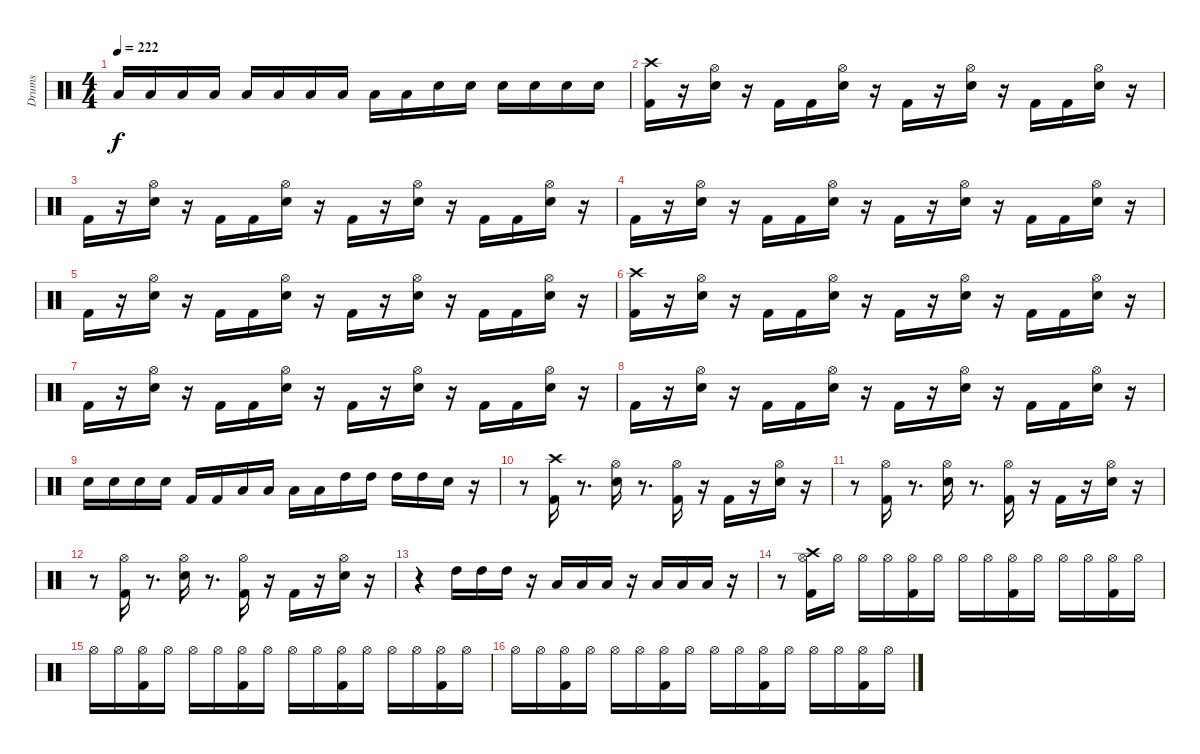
\track ("Drums" "Drums") {instrument percussion}
\staff {score}
\articulation defaults
\ts (4 4)
\tempo 222
\clef neutral
\ks c "Low Tom (hit)".16{dy f} "Low Tom (hit)".16 "Low Tom (hit)".16 "Low Floor Tom (hit)".16 "Low Floor Tom (hit)".16 "Low Floor Tom (hit)".16 "Low Tom (hit)".16 "Low Tom (hit)".16 "Low Tom (hit)".16 "Low Tom (hit)".16 "Snare (hit) 2".16 "Snare (hit) 2".16 "Snare (hit) 2".16 "Snare (hit) 2".16 "Snare (hit) 2".16 "Snare (hit) 2".16
|
("Kick (hit) 2" "Crash high (hit)").16 r.16 ("Snare (hit) 2" "Hi-Hat (open)").16 r.16 "Kick (hit) 2".16 "Kick (hit) 2".16 ("Snare (hit) 2" "Hi-Hat (open)").16 r.16 "Kick (hit) 2".16 r.16 ("Snare (hit) 2" "Hi-Hat (open)").16 r.16 "Kick (hit) 2".16 "Kick (hit) 2".16 ("Snare (hit) 2" "Hi-Hat (open)").16 r.16 |
"Kick (hit) 2".16 r.16 ("Snare (hit) 2" "Hi-Hat (open)").16 r.16 "Kick (hit) 2".16 "Kick (hit) 2".16 ("Snare (hit) 2" "Hi-Hat (open)").16 r.16 "Kick (hit) 2".16 r.16 ("Snare (hit) 2" "Hi-Hat (open)").16 r.16 "Kick (hit) 2".16 "Kick (hit) 2".16 ("Snare (hit) 2" "Hi-Hat (open)").16 r.16 |
"Kick (hit) 2".16 r.16 ("Snare (hit) 2" "Hi-Hat (open)").16 r.16 "Kick (hit) 2".16 "Kick (hit) 2".16 ("Snare (hit) 2" "Hi-Hat (open)").16 r.16 "Kick (hit) 2".16 r.16 ("Snare (hit) 2" "Hi-Hat (open)").16 r.16 "Kick (hit) 2".16 "Kick (hit) 2".16 ("Snare (hit) 2" "Hi-Hat (open)").16 r.16 |
"Kick (hit) 2".16 r.16 ("Snare (hit) 2" "Hi-Hat (open)").16 r.16 "Kick (hit) 2".16 "Kick (hit) 2".16 ("Snare (hit) 2" "Hi-Hat (open)").16 r.16 "Kick (hit) 2".16 r.16 ("Snare (hit) 2" "Hi-Hat (open)").16 r.16 "Kick (hit) 2".16 "Kick (hit) 2".16 ("Snare (hit) 2" "Hi-Hat (open)").16 r.16 |
("Kick (hit) 2" "Crash high (hit)").16 r.16 ("Snare (hit) 2" "Hi-Hat (open)").16 r.16 "Kick (hit) 2".16 "Kick (hit) 2".16 ("Snare (hit) 2" "Hi-Hat (open)").16 r.16 "Kick (hit) 2".16 r.16 ("Snare (hit) 2" "Hi-Hat (open)").16 r.16 "Kick (hit) 2".16 "Kick (hit) 2".16 ("Snare (hit) 2" "Hi-Hat (open)").16 r.16 |
"Kick (hit) 2".16 r.16 ("Snare (hit) 2" "Hi-Hat (open)").16 r.16 "Kick (hit) 2".16 "Kick (hit) 2".16 ("Snare (hit) 2" "Hi-Hat (open)").16 r.16 "Kick (hit) 2".16 r.16 ("Snare (hit) 2" "Hi-Hat (open)").16 r.16 "Kick (hit) 2".16 "Kick (hit) 2".16 ("Snare (hit) 2" "Hi-Hat (open)").16 r.16 |
"Kick (hit) 2".16 r.16 ("Snare (hit) 2" "Hi-Hat (open)").16 r.16 "Kick (hit) 2".16 "Kick (hit) 2".16 ("Snare (hit) 2" "Hi-Hat (open)").16 r.16 "Kick (hit) 2".16 r.16 ("Snare (hit) 2" "Hi-Hat (open)").16 r.16 "Kick (hit) 2".16 "Kick (hit) 2".16 ("Snare (hit) 2" "Hi-Hat (open)").16 r.16 |
"Snare (hit) 2".16 "Snare (hit) 2".16 "Snare (hit) 2".16 "Snare (hit) 2".16 "Kick (hit) 2".16 "Kick (hit) 2".16 "Low Floor Tom (hit)".16 "Low Floor Tom (hit)".16 "Low Tom (hit)".16 "Low Tom (hit)".16 "High Tom (hit)".16 "High Tom (hit)".16 "High Tom (hit)".16 "High Tom (hit)".16 "Snare (hit) 2".16 r.16 |
r.8 ("Kick (hit) 2" "Crash high (hit)").16 r.8{d} ("Snare (hit) 2" "Hi-Hat (open)").16 r.8{d} ("Kick (hit) 2" "Hi-Hat (open)").16 r.16 "Kick (hit) 2".16 r.16 ("Snare (hit) 2" "Hi-Hat (open)").16 r.16 |
r.8 ("Kick (hit) 2" "Hi-Hat (open)").16 r.8{d} ("Snare (hit) 2" "Hi-Hat (open)").16 r.8{d} ("Kick (hit) 2" "Hi-Hat (open)").16 r.16 "Kick (hit) 2".16 r.16 ("Snare (hit) 2" "Hi-Hat (open)").16 r.16 |
r.8 ("Kick (hit) 2" "Hi-Hat (open)").16 r.8{d} ("Snare (hit) 2" "Hi-Hat (open)").16 r.8{d} ("Kick (hit) 2" "Hi-Hat (open)").16 r.16 "Kick (hit) 2".16 r.16 ("Snare (hit) 2" "Hi-Hat (open)").16 r.16 |
r.4 "High Tom (hit)".16 "High Tom (hit)".16 "High Tom (hit)".16 r.16 "Low Tom (hit)".16 "Low Tom (hit)".16 "Low Tom (hit)".16 r.16 "Low Floor Tom (hit)".16 "Low Floor Tom (hit)".16 "Low Floor Tom (hit)".16 r.16 |
r.8 ("Kick (hit) 2" "Hi-Hat (open)" "Crash high (hit)").16 "Hi-Hat (open)".16 "Hi-Hat (open)".16 "Hi-Hat (open)".16 ("Kick (hit) 2" "Hi-Hat (open)").16 "Hi-Hat (open)".16 "Hi-Hat (open)".16 "Hi-Hat (open)".16 ("Kick (hit) 2" "Hi-Hat (open)").16 "Hi-Hat (open)".16 "Hi-Hat (open)".16 "Hi-Hat (open)".16 ("Kick (hit) 2" "Hi-Hat (open)").16 "Hi-Hat (open)".16 |
"Hi-Hat (open)".16 "Hi-Hat (open)".16 ("Kick (hit) 2" "Hi-Hat (open)").16 "Hi-Hat (open)".16 "Hi-Hat (open)".16 "Hi-Hat (open)".16 ("Kick (hit) 2" "Hi-Hat (open)").16 "Hi-Hat (open)".16 "Hi-Hat (open)".16 "Hi-Hat (open)".16 ("Kick (hit) 2" "Hi-Hat (open)").16 "Hi-Hat (open)".16 "Hi-Hat (open)".16 "Hi-Hat (open)".16 ("Kick (hit) 2" "Hi-Hat (open)").16 "Hi-Hat (open)".16 |
"Hi-Hat (open)".16 "Hi-Hat (open)".16 ("Kick (hit) 2" "Hi-Hat (open)").16 "Hi-Hat (open)".16 "Hi-Hat (open)".16 "Hi-Hat (open)".16 ("Kick (hit) 2" "Hi-Hat (open)").16 "Hi-Hat (open)".16 "Hi-Hat (open)".16 "Hi-Hat (open)".16 ("Kick (hit) 2" "Hi-Hat (open)").16 "Hi-Hat (open)".16 "Hi-Hat (open)".16 "Hi-Hat (open)".16 ("Kick (hit) 2" "Hi-Hat (open)").16 "Hi-Hat (open)".16
